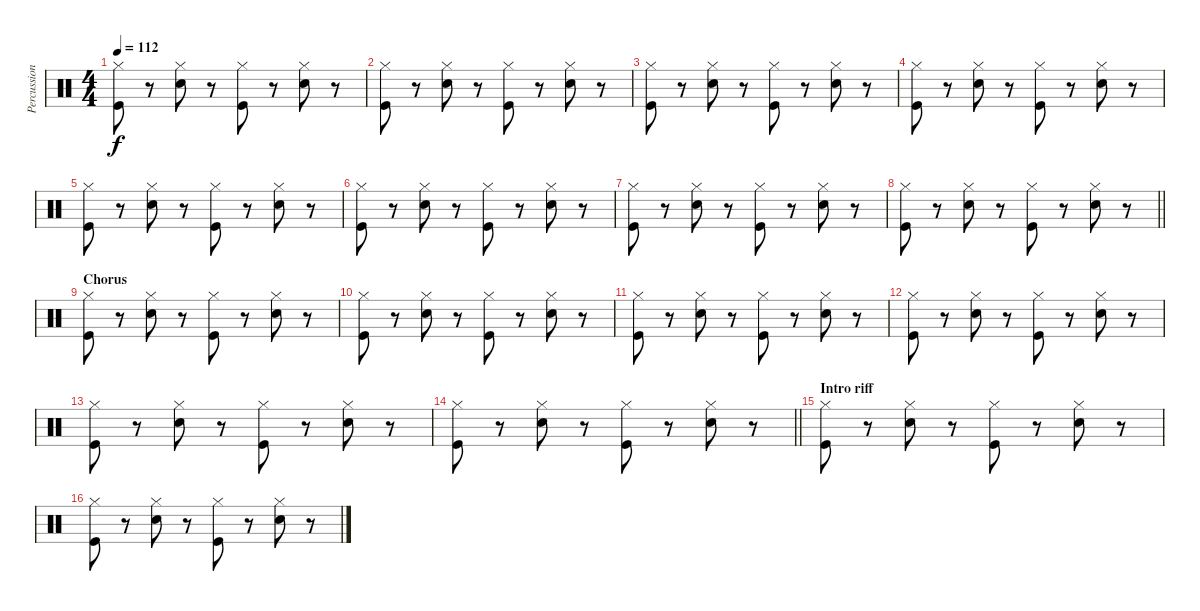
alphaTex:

\track ("Percussion" "Percussion") {instrument percussion}
\staff
\articulation defaults
\ts (4 4)
\tempo 112
\clef neutral
\ks c
("Kick (hit)" "Hi-Hat (closed)").8{dy f} r.8 ("Electric Snare (hit)" "Hi-Hat (closed)").8 r.8 ("Kick (hit)" "Hi-Hat (closed)").8 r.8 ("Electric Snare (hit)" "Hi-Hat (closed)").8 r.8 |
("Kick (hit)" "Hi-Hat (closed)").8 r.8 ("Electric Snare (hit)" "Hi-Hat (closed)").8 r.8 ("Kick (hit)" "Hi-Hat (closed)").8 r.8 ("Electric Snare (hit)" "Hi-Hat (closed)").8 r.8 |
("Kick (hit)" "Hi-Hat (closed)").8 r.8 ("Electric Snare (hit)" "Hi-Hat (closed)").8 r.8 ("Kick (hit)" "Hi-Hat (closed)").8 r.8 ("Electric Snare (hit)" "Hi-Hat (closed)").8 r.8 |
("Kick (hit)" "Hi-Hat (closed)").8 r.8 ("Electric Snare (hit)" "Hi-Hat (closed)").8 r.8 ("Kick (hit)" "Hi-Hat (closed)").8 r.8 ("Electric Snare (hit)" "Hi-Hat (closed)").8 r.8 |
("Kick (hit)" "Hi-Hat (closed)").8 r.8 ("Electric Snare (hit)" "Hi-Hat (closed)").8 r.8 ("Kick (hit)" "Hi-Hat (closed)").8 r.8 ("Electric Snare (hit)" "Hi-Hat (closed)").8 r.8 |
("Kick (hit)" "Hi-Hat (closed)").8 r.8 ("Electric Snare (hit)" "Hi-Hat (closed)").8 r.8 ("Kick (hit)" "Hi-Hat (closed)").8 r.8 ("Electric Snare (hit)" "Hi-Hat (closed)").8 r.8 |
("Kick (hit)" "Hi-Hat (closed)").8 r.8 ("Electric Snare (hit)" "Hi-Hat (closed)").8 r.8 ("Kick (hit)" "Hi-Hat (closed)").8 r.8 ("Electric Snare (hit)" "Hi-Hat (closed)").8 r.8 |
\barLineRight lightlight
("Kick (hit)" "Hi-Hat (closed)").8 r.8 ("Electric Snare (hit)" "Hi-Hat (closed)").8 r.8 ("Kick (hit)" "Hi-Hat (closed)").8 r.8 ("Electric Snare (hit)" "Hi-Hat (closed)").8 r.8 |
\section ("" "Chorus")
("Kick (hit)" "Hi-Hat (closed)").8 r.8 ("Electric Snare (hit)" "Hi-Hat (closed)").8 r.8 ("Kick (hit)" "Hi-Hat (closed)").8 r.8 ("Electric Snare (hit)" "Hi-Hat (closed)").8 r.8 |
("Kick (hit)" "Hi-Hat (closed)").8 r.8 ("Electric Snare (hit)" "Hi-Hat (closed)").8 r.8 ("Kick (hit)" "Hi-Hat (closed)").8 r.8 ("Electric Snare (hit)" "Hi-Hat (closed)").8 r.8 |
("Kick (hit)" "Hi-Hat (closed)").8 r.8 ("Electric Snare (hit)" "Hi-Hat (closed)").8 r.8 ("Kick (hit)" "Hi-Hat (closed)").8 r.8 ("Electric Snare (hit)" "Hi-Hat (closed)").8 r.8 |
("Kick (hit)" "Hi-Hat (closed)").8 r.8 ("Electric Snare (hit)" "Hi-Hat (closed)").8 r.8 ("Kick (hit)" "Hi-Hat (closed)").8 r.8 ("Electric Snare (hit)" "Hi-Hat (closed)").8 r.8 |
("Kick (hit)" "Hi-Hat (closed)").8 r.8 ("Electric Snare (hit)" "Hi-Hat (closed)").8 r.8 ("Kick (hit)" "Hi-Hat (closed)").8 r.8 ("Electric Snare (hit)" "Hi-Hat (closed)").8 r.8 |
\barLineRight lightlight
("Kick (hit)" "Hi-Hat (closed)").8 r.8 ("Electric Snare (hit)" "Hi-Hat (closed)").8 r.8 ("Kick (hit)" "Hi-Hat (closed)").8 r.8 ("Electric Snare (hit)" "Hi-Hat (closed)").8 r.8 |
\section ("" "Intro riff")
("Kick (hit)" "Hi-Hat (closed)").8 r.8 ("Electric Snare (hit)" "Hi-Hat (closed)").8 r.8 ("Kick (hit)" "Hi-Hat (closed)").8 r.8 ("Electric Snare (hit)" "Hi-Hat (closed)").8 r.8 |
("Kick (hit)" "Hi-Hat (closed)").8 r.8 ("Electric Snare (hit)" "Hi-Hat (closed)").8 r.8 ("Kick (hit)" "Hi-Hat (closed)").8 r.8 ("Electric Snare (hit)" "Hi-Hat (closed)").8 r.8
